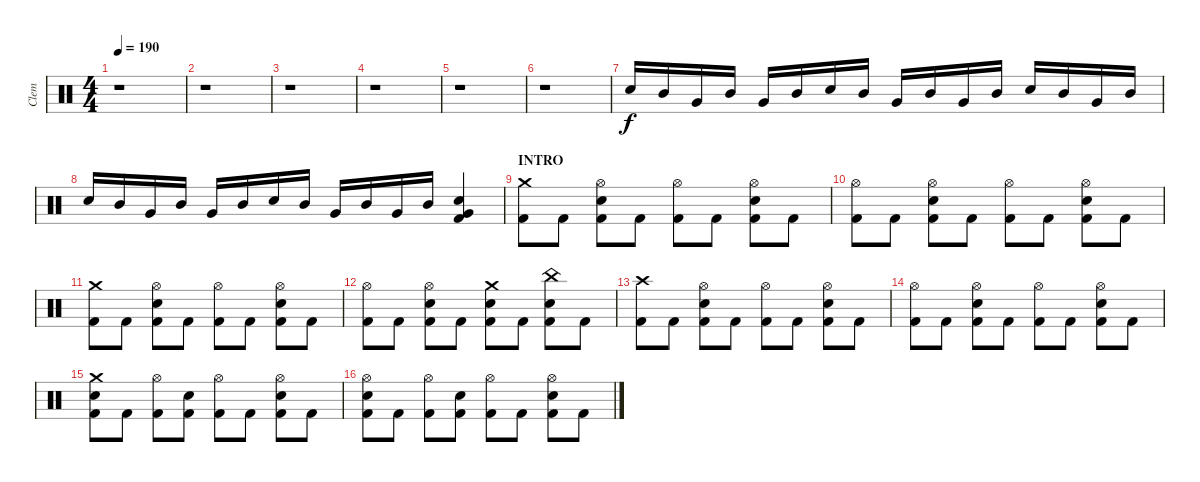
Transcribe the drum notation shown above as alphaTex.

\track ("Clem" "Clem") {instrument percussion}
\staff {score}
\articulation defaults
\ts (4 4)
\tempo 190
\clef neutral
\ks c
r.1{dy f} |
r.1 |
r.1 |
r.1 |
r.1 |
r.1 |
"Electric Snare (hit)".16 "Mid Tom (hit)".16 "Very Low Tom (hit)".16 "Mid Tom (hit)".16 "Very Low Tom (hit)".16 "Mid Tom (hit)".16 "Electric Snare (hit)".16 "Mid Tom (hit)".16 "Very Low Tom (hit)".16 "Mid Tom (hit)".16 "Very Low Tom (hit)".16 "Mid Tom (hit)".16 "Electric Snare (hit)".16 "Mid Tom (hit)".16 "Very Low Tom (hit)".16 "Mid Tom (hit)".16 |
"Electric Snare (hit)".16 "Mid Tom (hit)".16 "Very Low Tom (hit)".16 "Mid Tom (hit)".16 "Very Low Tom (hit)".16 "Mid Tom (hit)".16 "Electric Snare (hit)".16 "Mid Tom (hit)".16 "Very Low Tom (hit)".16 "Mid Tom (hit)".16 "Very Low Tom (hit)".16 "Mid Tom (hit)".16 ("Electric Snare (hit)" "Very Low Tom (hit)" "Kick (hit) 2").4 |
\section ("" "INTRO")
("Crash medium (hit)" "Kick (hit) 2").8 "Kick (hit) 2".8 ("Hi-Hat (open)" "Electric Snare (hit)" "Kick (hit) 2").8 "Kick (hit) 2".8 ("Hi-Hat (open)" "Kick (hit) 2").8 "Kick (hit) 2".8 ("Hi-Hat (open)" "Electric Snare (hit)" "Kick (hit) 2").8 "Kick (hit) 2".8 |
("Hi-Hat (open)" "Kick (hit) 2").8 "Kick (hit) 2".8 ("Hi-Hat (open)" "Electric Snare (hit)" "Kick (hit) 2").8 "Kick (hit) 2".8 ("Hi-Hat (open)" "Kick (hit) 2").8 "Kick (hit) 2".8 ("Hi-Hat (open)" "Electric Snare (hit)" "Kick (hit) 2").8 "Kick (hit) 2".8 |
("Crash medium (hit)" "Kick (hit) 2").8 "Kick (hit) 2".8 ("Hi-Hat (open)" "Electric Snare (hit)" "Kick (hit) 2").8 "Kick (hit) 2".8 ("Hi-Hat (open)" "Kick (hit) 2").8 "Kick (hit) 2".8 ("Hi-Hat (open)" "Electric Snare (hit)" "Kick (hit) 2").8 "Kick (hit) 2".8 |
("Hi-Hat (open)" "Kick (hit) 2").8 "Kick (hit) 2".8 ("Hi-Hat (open)" "Electric Snare (hit)" "Kick (hit) 2").8 "Kick (hit) 2".8 ("Crash medium (hit)" "Electric Snare (hit)" "Kick (hit) 2").8 "Kick (hit) 2".8 ("China (hit)" "Electric Snare (hit)" "Kick (hit) 2").8 "Kick (hit) 2".8 |
("Crash high (hit)" "Kick (hit) 2").8 "Kick (hit) 2".8 ("Hi-Hat (open)" "Electric Snare (hit)" "Kick (hit) 2").8 "Kick (hit) 2".8 ("Hi-Hat (open)" "Kick (hit) 2").8 "Kick (hit) 2".8 ("Hi-Hat (open)" "Electric Snare (hit)" "Kick (hit) 2").8 "Kick (hit) 2".8 |
("Hi-Hat (open)" "Kick (hit) 2").8 "Kick (hit) 2".8 ("Hi-Hat (open)" "Electric Snare (hit)" "Kick (hit) 2").8 "Kick (hit) 2".8 ("Hi-Hat (open)" "Kick (hit) 2").8 "Kick (hit) 2".8 ("Hi-Hat (open)" "Electric Snare (hit)" "Kick (hit) 2").8 "Kick (hit) 2".8 |
("Crash medium (hit)" "Electric Snare (hit)" "Kick (hit) 2").8 "Kick (hit) 2".8 ("Hi-Hat (open)" "Kick (hit) 2").8 ("Electric Snare (hit)" "Kick (hit) 2").8 ("Hi-Hat (open)" "Kick (hit) 2").8 "Kick (hit) 2".8 ("Hi-Hat (open)" "Electric Snare (hit)" "Kick (hit) 2").8 "Kick (hit) 2".8 |
("Hi-Hat (open)" "Electric Snare (hit)" "Kick (hit) 2").8 "Kick (hit) 2".8 ("Hi-Hat (open)" "Kick (hit) 2").8 ("Electric Snare (hit)" "Kick (hit) 2").8 ("Hi-Hat (open)" "Kick (hit) 2").8 "Kick (hit) 2".8 ("Hi-Hat (open)" "Electric Snare (hit)" "Kick (hit) 2").8 "Kick (hit) 2".8
